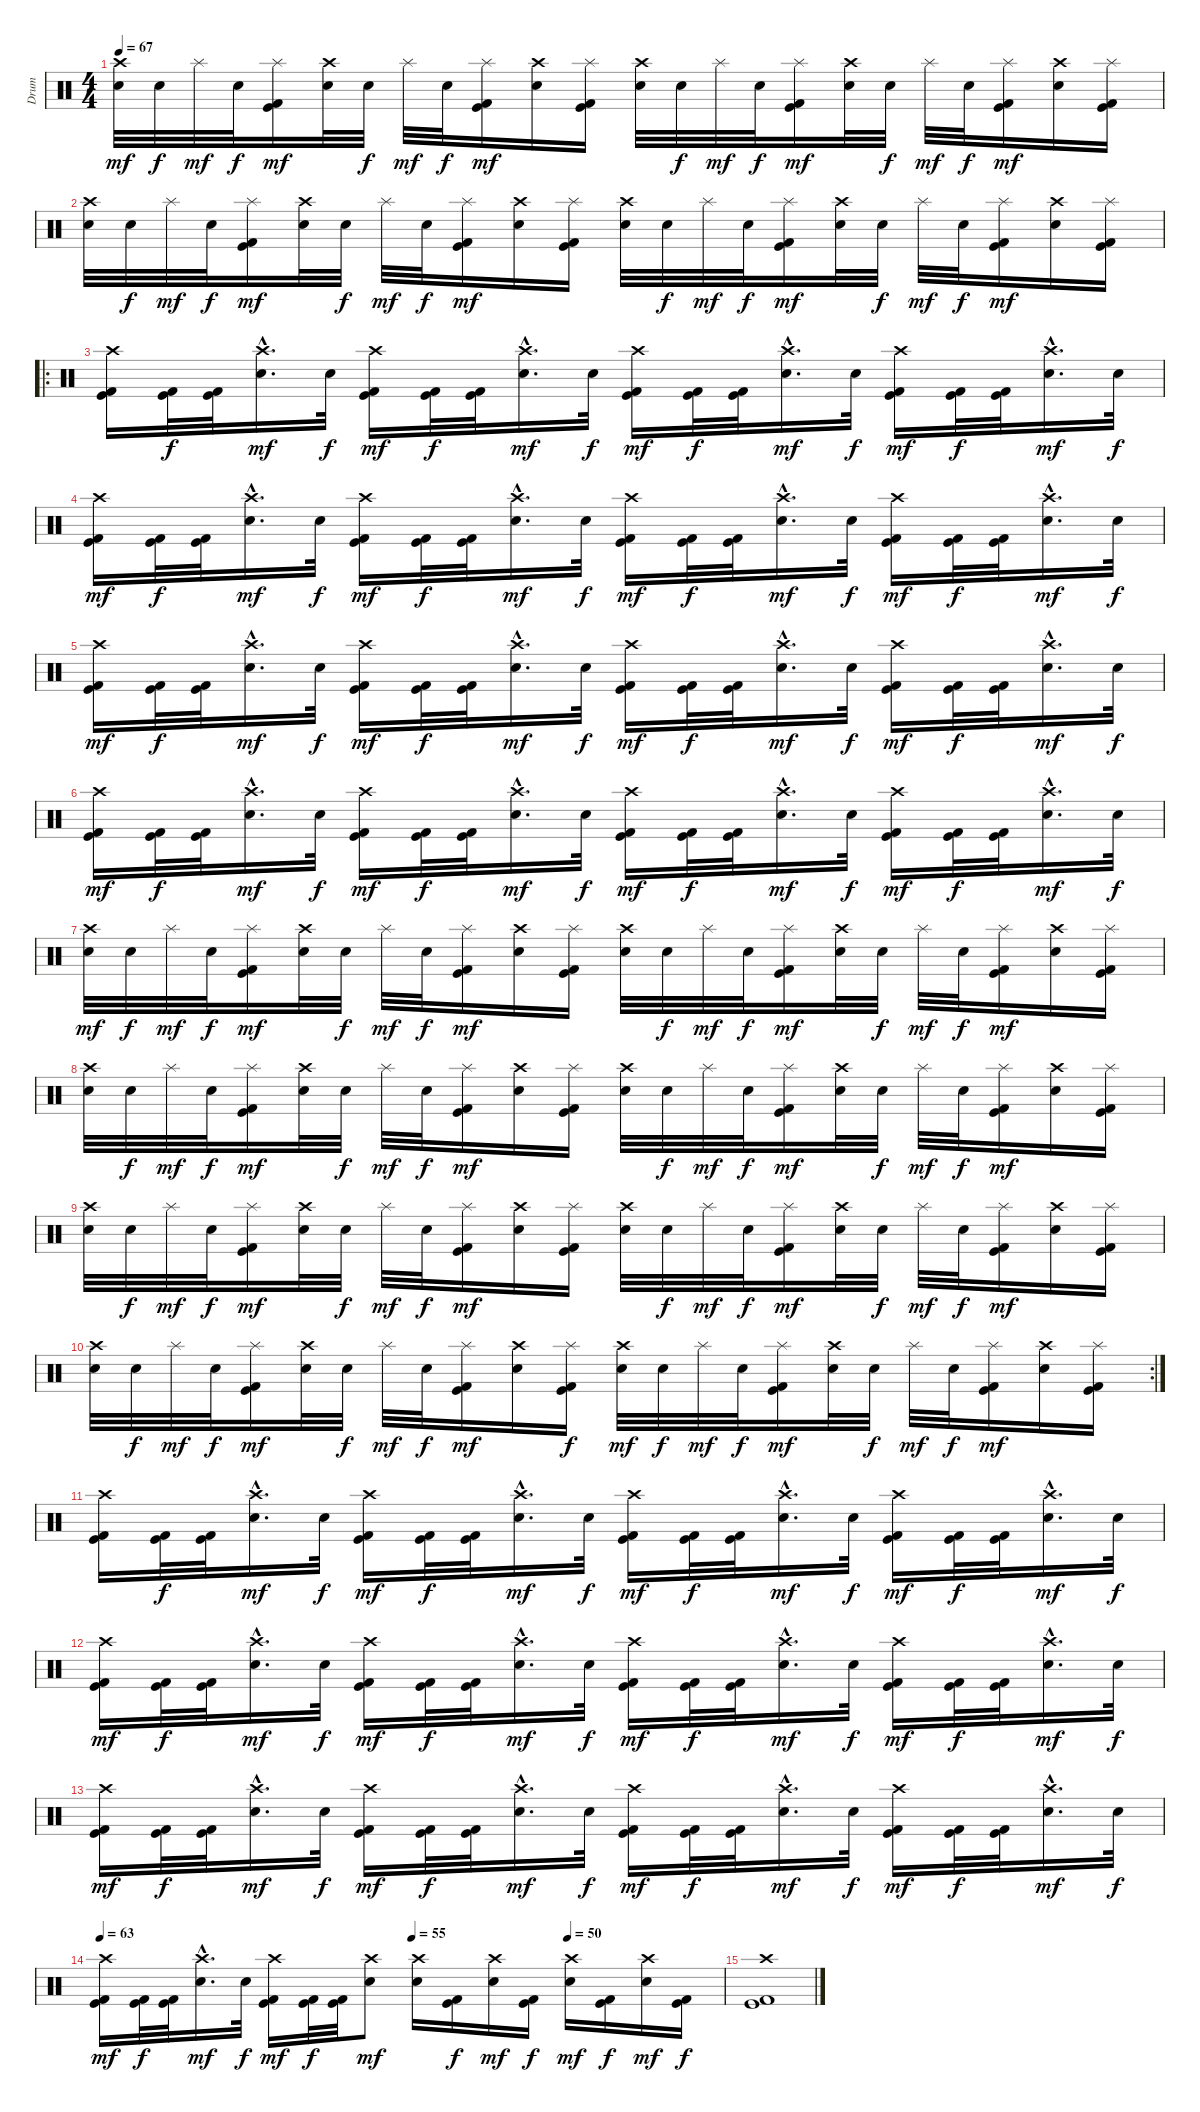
\track ("Drum" "Drum") {instrument percussion}
\staff {score}
\articulation defaults
\ts (4 4)
\tempo 67
\clef neutral
\ks c
("Crash high (hit)" "Electric Snare (hit)").32{dy mf} "Electric Snare (hit)".32{dy f} "Splash (hit)".32{dy mf} "Electric Snare (hit)".32{dy f} ("Splash (hit)" "Kick (hit)" "Kick (hit) 2").16{dy mf} ("Crash high (hit)" "Electric Snare (hit)").32 "Electric Snare (hit)".32{dy f} "Splash (hit)".32{dy mf} "Electric Snare (hit)".32{dy f} ("Splash (hit)" "Kick (hit)" "Kick (hit) 2").16{dy mf} ("Crash high (hit)" "Electric Snare (hit)").16 ("Splash (hit)" "Kick (hit)" "Kick (hit) 2").16 ("Crash high (hit)" "Electric Snare (hit)").32 "Electric Snare (hit)".32{dy f} "Splash (hit)".32{dy mf} "Electric Snare (hit)".32{dy f} ("Splash (hit)" "Kick (hit)" "Kick (hit) 2").16{dy mf} ("Crash high (hit)" "Electric Snare (hit)").32 "Electric Snare (hit)".32{dy f} "Splash (hit)".32{dy mf} "Electric Snare (hit)".32{dy f} ("Splash (hit)" "Kick (hit)" "Kick (hit) 2").16{dy mf} ("Crash high (hit)" "Electric Snare (hit)").16 ("Splash (hit)" "Kick (hit)" "Kick (hit) 2").16 |
("Crash high (hit)" "Electric Snare (hit)").32 "Electric Snare (hit)".32{dy f} "Splash (hit)".32{dy mf} "Electric Snare (hit)".32{dy f} ("Splash (hit)" "Kick (hit)" "Kick (hit) 2").16{dy mf} ("Crash high (hit)" "Electric Snare (hit)").32 "Electric Snare (hit)".32{dy f} "Splash (hit)".32{dy mf} "Electric Snare (hit)".32{dy f} ("Splash (hit)" "Kick (hit)" "Kick (hit) 2").16{dy mf} ("Crash high (hit)" "Electric Snare (hit)").16 ("Splash (hit)" "Kick (hit)" "Kick (hit) 2").16 ("Crash high (hit)" "Electric Snare (hit)").32 "Electric Snare (hit)".32{dy f} "Splash (hit)".32{dy mf} "Electric Snare (hit)".32{dy f} ("Splash (hit)" "Kick (hit)" "Kick (hit) 2").16{dy mf} ("Crash high (hit)" "Electric Snare (hit)").32 "Electric Snare (hit)".32{dy f} "Splash (hit)".32{dy mf} "Electric Snare (hit)".32{dy f} ("Splash (hit)" "Kick (hit)" "Kick (hit) 2").16{dy mf} ("Crash high (hit)" "Electric Snare (hit)").16 ("Splash (hit)" "Kick (hit)" "Kick (hit) 2").16 |
\ro
("Crash high (hit)" "Kick (hit)" "Kick (hit) 2").16 ("Kick (hit)" "Kick (hit) 2").32{dy f} ("Kick (hit)" "Kick (hit) 2").32 ("Crash high (hit)"{hac} "Electric Snare (hit)"{hac}).16{d dy mf} "Electric Snare (hit)".32{dy f} ("Crash high (hit)" "Kick (hit)" "Kick (hit) 2").16{dy mf} ("Kick (hit)" "Kick (hit) 2").32{dy f} ("Kick (hit)" "Kick (hit) 2").32 ("Crash high (hit)"{hac} "Electric Snare (hit)"{hac}).16{d dy mf} "Electric Snare (hit)".32{dy f} ("Crash high (hit)" "Kick (hit)" "Kick (hit) 2").16{dy mf} ("Kick (hit)" "Kick (hit) 2").32{dy f} ("Kick (hit)" "Kick (hit) 2").32 ("Crash high (hit)"{hac} "Electric Snare (hit)"{hac}).16{d dy mf} "Electric Snare (hit)".32{dy f} ("Crash high (hit)" "Kick (hit)" "Kick (hit) 2").16{dy mf} ("Kick (hit)" "Kick (hit) 2").32{dy f} ("Kick (hit)" "Kick (hit) 2").32 ("Crash high (hit)"{hac} "Electric Snare (hit)"{hac}).16{d dy mf} "Electric Snare (hit)".32{dy f} |
("Crash high (hit)" "Kick (hit)" "Kick (hit) 2").16{dy mf} ("Kick (hit)" "Kick (hit) 2").32{dy f} ("Kick (hit)" "Kick (hit) 2").32 ("Crash high (hit)"{hac} "Electric Snare (hit)"{hac}).16{d dy mf} "Electric Snare (hit)".32{dy f} ("Crash high (hit)" "Kick (hit)" "Kick (hit) 2").16{dy mf} ("Kick (hit)" "Kick (hit) 2").32{dy f} ("Kick (hit)" "Kick (hit) 2").32 ("Crash high (hit)"{hac} "Electric Snare (hit)"{hac}).16{d dy mf} "Electric Snare (hit)".32{dy f} ("Crash high (hit)" "Kick (hit)" "Kick (hit) 2").16{dy mf} ("Kick (hit)" "Kick (hit) 2").32{dy f} ("Kick (hit)" "Kick (hit) 2").32 ("Crash high (hit)"{hac} "Electric Snare (hit)"{hac}).16{d dy mf} "Electric Snare (hit)".32{dy f} ("Crash high (hit)" "Kick (hit)" "Kick (hit) 2").16{dy mf} ("Kick (hit)" "Kick (hit) 2").32{dy f} ("Kick (hit)" "Kick (hit) 2").32 ("Crash high (hit)"{hac} "Electric Snare (hit)"{hac}).16{d dy mf} "Electric Snare (hit)".32{dy f} |
("Crash high (hit)" "Kick (hit)" "Kick (hit) 2").16{dy mf} ("Kick (hit)" "Kick (hit) 2").32{dy f} ("Kick (hit)" "Kick (hit) 2").32 ("Crash high (hit)"{hac} "Electric Snare (hit)"{hac}).16{d dy mf} "Electric Snare (hit)".32{dy f} ("Crash high (hit)" "Kick (hit)" "Kick (hit) 2").16{dy mf} ("Kick (hit)" "Kick (hit) 2").32{dy f} ("Kick (hit)" "Kick (hit) 2").32 ("Crash high (hit)"{hac} "Electric Snare (hit)"{hac}).16{d dy mf} "Electric Snare (hit)".32{dy f} ("Crash high (hit)" "Kick (hit)" "Kick (hit) 2").16{dy mf} ("Kick (hit)" "Kick (hit) 2").32{dy f} ("Kick (hit)" "Kick (hit) 2").32 ("Crash high (hit)"{hac} "Electric Snare (hit)"{hac}).16{d dy mf} "Electric Snare (hit)".32{dy f} ("Crash high (hit)" "Kick (hit)" "Kick (hit) 2").16{dy mf} ("Kick (hit)" "Kick (hit) 2").32{dy f} ("Kick (hit)" "Kick (hit) 2").32 ("Crash high (hit)"{hac} "Electric Snare (hit)"{hac}).16{d dy mf} "Electric Snare (hit)".32{dy f} |
("Crash high (hit)" "Kick (hit)" "Kick (hit) 2").16{dy mf} ("Kick (hit)" "Kick (hit) 2").32{dy f} ("Kick (hit)" "Kick (hit) 2").32 ("Crash high (hit)"{hac} "Electric Snare (hit)"{hac}).16{d dy mf} "Electric Snare (hit)".32{dy f} ("Crash high (hit)" "Kick (hit)" "Kick (hit) 2").16{dy mf} ("Kick (hit)" "Kick (hit) 2").32{dy f} ("Kick (hit)" "Kick (hit) 2").32 ("Crash high (hit)"{hac} "Electric Snare (hit)"{hac}).16{d dy mf} "Electric Snare (hit)".32{dy f} ("Crash high (hit)" "Kick (hit)" "Kick (hit) 2").16{dy mf} ("Kick (hit)" "Kick (hit) 2").32{dy f} ("Kick (hit)" "Kick (hit) 2").32 ("Crash high (hit)"{hac} "Electric Snare (hit)"{hac}).16{d dy mf} "Electric Snare (hit)".32{dy f} ("Crash high (hit)" "Kick (hit)" "Kick (hit) 2").16{dy mf} ("Kick (hit)" "Kick (hit) 2").32{dy f} ("Kick (hit)" "Kick (hit) 2").32 ("Crash high (hit)"{hac} "Electric Snare (hit)"{hac}).16{d dy mf} "Electric Snare (hit)".32{dy f} |
("Crash high (hit)" "Electric Snare (hit)").32{dy mf} "Electric Snare (hit)".32{dy f} "Splash (hit)".32{dy mf} "Electric Snare (hit)".32{dy f} ("Splash (hit)" "Kick (hit)" "Kick (hit) 2").16{dy mf} ("Crash high (hit)" "Electric Snare (hit)").32 "Electric Snare (hit)".32{dy f} "Splash (hit)".32{dy mf} "Electric Snare (hit)".32{dy f} ("Splash (hit)" "Kick (hit)" "Kick (hit) 2").16{dy mf} ("Crash high (hit)" "Electric Snare (hit)").16 ("Splash (hit)" "Kick (hit)" "Kick (hit) 2").16 ("Crash high (hit)" "Electric Snare (hit)").32 "Electric Snare (hit)".32{dy f} "Splash (hit)".32{dy mf} "Electric Snare (hit)".32{dy f} ("Splash (hit)" "Kick (hit)" "Kick (hit) 2").16{dy mf} ("Crash high (hit)" "Electric Snare (hit)").32 "Electric Snare (hit)".32{dy f} "Splash (hit)".32{dy mf} "Electric Snare (hit)".32{dy f} ("Splash (hit)" "Kick (hit)" "Kick (hit) 2").16{dy mf} ("Crash high (hit)" "Electric Snare (hit)").16 ("Splash (hit)" "Kick (hit)" "Kick (hit) 2").16 |
("Crash high (hit)" "Electric Snare (hit)").32 "Electric Snare (hit)".32{dy f} "Splash (hit)".32{dy mf} "Electric Snare (hit)".32{dy f} ("Splash (hit)" "Kick (hit)" "Kick (hit) 2").16{dy mf} ("Crash high (hit)" "Electric Snare (hit)").32 "Electric Snare (hit)".32{dy f} "Splash (hit)".32{dy mf} "Electric Snare (hit)".32{dy f} ("Splash (hit)" "Kick (hit)" "Kick (hit) 2").16{dy mf} ("Crash high (hit)" "Electric Snare (hit)").16 ("Splash (hit)" "Kick (hit)" "Kick (hit) 2").16 ("Crash high (hit)" "Electric Snare (hit)").32 "Electric Snare (hit)".32{dy f} "Splash (hit)".32{dy mf} "Electric Snare (hit)".32{dy f} ("Splash (hit)" "Kick (hit)" "Kick (hit) 2").16{dy mf} ("Crash high (hit)" "Electric Snare (hit)").32 "Electric Snare (hit)".32{dy f} "Splash (hit)".32{dy mf} "Electric Snare (hit)".32{dy f} ("Splash (hit)" "Kick (hit)" "Kick (hit) 2").16{dy mf} ("Crash high (hit)" "Electric Snare (hit)").16 ("Splash (hit)" "Kick (hit)" "Kick (hit) 2").16 |
("Crash high (hit)" "Electric Snare (hit)").32 "Electric Snare (hit)".32{dy f} "Splash (hit)".32{dy mf} "Electric Snare (hit)".32{dy f} ("Splash (hit)" "Kick (hit)" "Kick (hit) 2").16{dy mf} ("Crash high (hit)" "Electric Snare (hit)").32 "Electric Snare (hit)".32{dy f} "Splash (hit)".32{dy mf} "Electric Snare (hit)".32{dy f} ("Splash (hit)" "Kick (hit)" "Kick (hit) 2").16{dy mf} ("Crash high (hit)" "Electric Snare (hit)").16 ("Splash (hit)" "Kick (hit)" "Kick (hit) 2").16 ("Crash high (hit)" "Electric Snare (hit)").32 "Electric Snare (hit)".32{dy f} "Splash (hit)".32{dy mf} "Electric Snare (hit)".32{dy f} ("Splash (hit)" "Kick (hit)" "Kick (hit) 2").16{dy mf} ("Crash high (hit)" "Electric Snare (hit)").32 "Electric Snare (hit)".32{dy f} "Splash (hit)".32{dy mf} "Electric Snare (hit)".32{dy f} ("Splash (hit)" "Kick (hit)" "Kick (hit) 2").16{dy mf} ("Crash high (hit)" "Electric Snare (hit)").16 ("Splash (hit)" "Kick (hit)" "Kick (hit) 2").16 |
\rc 2
("Crash high (hit)" "Electric Snare (hit)").32 "Electric Snare (hit)".32{dy f} "Splash (hit)".32{dy mf} "Electric Snare (hit)".32{dy f} ("Splash (hit)" "Kick (hit)" "Kick (hit) 2").16{dy mf} ("Crash high (hit)" "Electric Snare (hit)").32 "Electric Snare (hit)".32{dy f} "Splash (hit)".32{dy mf} "Electric Snare (hit)".32{dy f} ("Splash (hit)" "Kick (hit)" "Kick (hit) 2").16{dy mf} ("Crash high (hit)" "Electric Snare (hit)").16 ("Splash (hit)" "Kick (hit)" "Kick (hit) 2").16{dy f} ("Crash high (hit)" "Electric Snare (hit)").32{dy mf} "Electric Snare (hit)".32{dy f} "Splash (hit)".32{dy mf} "Electric Snare (hit)".32{dy f} ("Splash (hit)" "Kick (hit)" "Kick (hit) 2").16{dy mf} ("Crash high (hit)" "Electric Snare (hit)").32 "Electric Snare (hit)".32{dy f} "Splash (hit)".32{dy mf} "Electric Snare (hit)".32{dy f} ("Splash (hit)" "Kick (hit)" "Kick (hit) 2").16{dy mf} ("Crash high (hit)" "Electric Snare (hit)").16 ("Splash (hit)" "Kick (hit)" "Kick (hit) 2").16 |
("Crash high (hit)" "Kick (hit)" "Kick (hit) 2").16 ("Kick (hit)" "Kick (hit) 2").32{dy f} ("Kick (hit)" "Kick (hit) 2").32 ("Crash high (hit)"{hac} "Electric Snare (hit)"{hac}).16{d dy mf} "Electric Snare (hit)".32{dy f} ("Crash high (hit)" "Kick (hit)" "Kick (hit) 2").16{dy mf} ("Kick (hit)" "Kick (hit) 2").32{dy f} ("Kick (hit)" "Kick (hit) 2").32 ("Crash high (hit)"{hac} "Electric Snare (hit)"{hac}).16{d dy mf} "Electric Snare (hit)".32{dy f} ("Crash high (hit)" "Kick (hit)" "Kick (hit) 2").16{dy mf} ("Kick (hit)" "Kick (hit) 2").32{dy f} ("Kick (hit)" "Kick (hit) 2").32 ("Crash high (hit)"{hac} "Electric Snare (hit)"{hac}).16{d dy mf} "Electric Snare (hit)".32{dy f} ("Crash high (hit)" "Kick (hit)" "Kick (hit) 2").16{dy mf} ("Kick (hit)" "Kick (hit) 2").32{dy f} ("Kick (hit)" "Kick (hit) 2").32 ("Crash high (hit)"{hac} "Electric Snare (hit)"{hac}).16{d dy mf} "Electric Snare (hit)".32{dy f} |
("Crash high (hit)" "Kick (hit)" "Kick (hit) 2").16{dy mf} ("Kick (hit)" "Kick (hit) 2").32{dy f} ("Kick (hit)" "Kick (hit) 2").32 ("Crash high (hit)"{hac} "Electric Snare (hit)"{hac}).16{d dy mf} "Electric Snare (hit)".32{dy f} ("Crash high (hit)" "Kick (hit)" "Kick (hit) 2").16{dy mf} ("Kick (hit)" "Kick (hit) 2").32{dy f} ("Kick (hit)" "Kick (hit) 2").32 ("Crash high (hit)"{hac} "Electric Snare (hit)"{hac}).16{d dy mf} "Electric Snare (hit)".32{dy f} ("Crash high (hit)" "Kick (hit)" "Kick (hit) 2").16{dy mf} ("Kick (hit)" "Kick (hit) 2").32{dy f} ("Kick (hit)" "Kick (hit) 2").32 ("Crash high (hit)"{hac} "Electric Snare (hit)"{hac}).16{d dy mf} "Electric Snare (hit)".32{dy f} ("Crash high (hit)" "Kick (hit)" "Kick (hit) 2").16{dy mf} ("Kick (hit)" "Kick (hit) 2").32{dy f} ("Kick (hit)" "Kick (hit) 2").32 ("Crash high (hit)"{hac} "Electric Snare (hit)"{hac}).16{d dy mf} "Electric Snare (hit)".32{dy f} |
("Crash high (hit)" "Kick (hit)" "Kick (hit) 2").16{dy mf} ("Kick (hit)" "Kick (hit) 2").32{dy f} ("Kick (hit)" "Kick (hit) 2").32 ("Crash high (hit)"{hac} "Electric Snare (hit)"{hac}).16{d dy mf} "Electric Snare (hit)".32{dy f} ("Crash high (hit)" "Kick (hit)" "Kick (hit) 2").16{dy mf} ("Kick (hit)" "Kick (hit) 2").32{dy f} ("Kick (hit)" "Kick (hit) 2").32 ("Crash high (hit)"{hac} "Electric Snare (hit)"{hac}).16{d dy mf} "Electric Snare (hit)".32{dy f} ("Crash high (hit)" "Kick (hit)" "Kick (hit) 2").16{dy mf} ("Kick (hit)" "Kick (hit) 2").32{dy f} ("Kick (hit)" "Kick (hit) 2").32 ("Crash high (hit)"{hac} "Electric Snare (hit)"{hac}).16{d dy mf} "Electric Snare (hit)".32{dy f} ("Crash high (hit)" "Kick (hit)" "Kick (hit) 2").16{dy mf} ("Kick (hit)" "Kick (hit) 2").32{dy f} ("Kick (hit)" "Kick (hit) 2").32 ("Crash high (hit)"{hac} "Electric Snare (hit)"{hac}).16{d dy mf} "Electric Snare (hit)".32{dy f} |
\tempo 63
\tempo (55 0.5)
\tempo (50 0.75)
("Crash high (hit)" "Kick (hit)" "Kick (hit) 2").16{dy mf} ("Kick (hit)" "Kick (hit) 2").32{dy f} ("Kick (hit)" "Kick (hit) 2").32 ("Crash high (hit)"{hac} "Electric Snare (hit)"{hac}).16{d dy mf} "Electric Snare (hit)".32{dy f} ("Crash high (hit)" "Kick (hit)" "Kick (hit) 2").16{dy mf} ("Kick (hit)" "Kick (hit) 2").32{dy f} ("Kick (hit)" "Kick (hit) 2").32 ("Crash high (hit)" "Electric Snare (hit)").8{dy mf} ("Crash high (hit)" "Electric Snare (hit)").16 ("Kick (hit)" "Kick (hit) 2").16{dy f} ("Crash high (hit)" "Electric Snare (hit)").16{dy mf} ("Kick (hit)" "Kick (hit) 2").16{dy f} ("Crash high (hit)" "Electric Snare (hit)").16{dy mf} ("Kick (hit)" "Kick (hit) 2").16{dy f} ("Crash high (hit)" "Electric Snare (hit)").16{dy mf} ("Kick (hit)" "Kick (hit) 2").16{dy f} |
("Crash high (hit)" "Kick (hit)" "Kick (hit) 2").1
